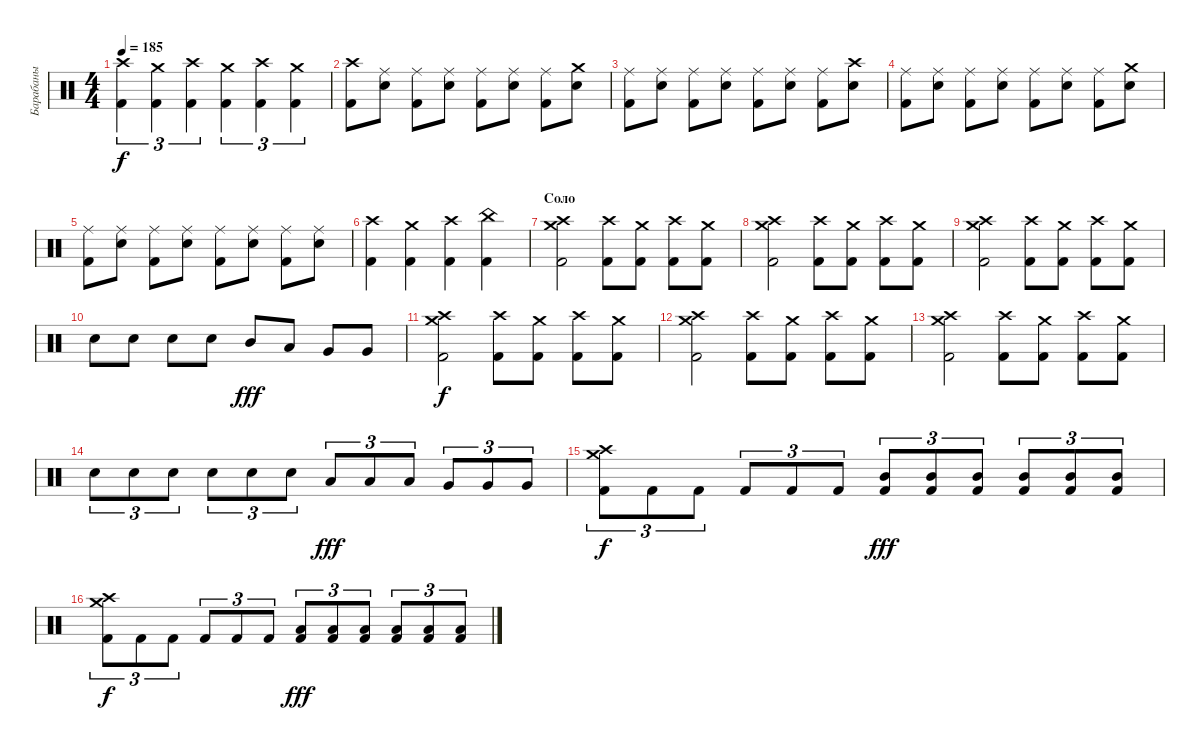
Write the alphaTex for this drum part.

\track ("Барабаны" "Барабаны") {instrument percussion}
\staff {score}
\articulation defaults
\ts (4 4)
\tempo 185
\clef neutral
\ks c
("Crash high (hit)" "Kick (hit) 2").4{tu (3 2) dy f} ("Crash medium (hit)" "Kick (hit) 2").4{tu (3 2)} ("Crash high (hit)" "Kick (hit) 2").4{tu (3 2)} ("Crash medium (hit)" "Kick (hit) 2").4{tu (3 2)} ("Crash high (hit)" "Kick (hit) 2").4{tu (3 2)} ("Crash medium (hit)" "Kick (hit) 2").4{tu (3 2)} |
("Crash high (hit)" "Kick (hit) 2").8 ("Ride (middle)" "Snare (hit) 2").8 ("Ride (middle)" "Kick (hit) 2").8 ("Ride (middle)" "Snare (hit) 2").8 ("Ride (middle)" "Kick (hit) 2").8 ("Ride (middle)" "Snare (hit) 2").8 ("Ride (middle)" "Kick (hit) 2").8 ("Crash medium (hit)" "Snare (hit) 2").8 |
("Ride (middle)" "Kick (hit) 2").8 ("Ride (middle)" "Snare (hit) 2").8 ("Ride (middle)" "Kick (hit) 2").8 ("Ride (middle)" "Snare (hit) 2").8 ("Ride (middle)" "Kick (hit) 2").8 ("Ride (middle)" "Snare (hit) 2").8 ("Ride (middle)" "Kick (hit) 2").8 ("Crash high (hit)" "Snare (hit) 2").8 |
("Ride (middle)" "Kick (hit) 2").8 ("Ride (middle)" "Snare (hit) 2").8 ("Ride (middle)" "Kick (hit) 2").8 ("Ride (middle)" "Snare (hit) 2").8 ("Ride (middle)" "Kick (hit) 2").8 ("Ride (middle)" "Snare (hit) 2").8 ("Ride (middle)" "Kick (hit) 2").8 ("Crash medium (hit)" "Snare (hit) 2").8 |
("Ride (middle)" "Kick (hit) 2").8 ("Ride (middle)" "Snare (hit) 2").8 ("Ride (middle)" "Kick (hit) 2").8 ("Ride (middle)" "Snare (hit) 2").8 ("Ride (middle)" "Kick (hit) 2").8 ("Ride (middle)" "Snare (hit) 2").8 ("Ride (middle)" "Kick (hit) 2").8 ("Ride (middle)" "Snare (hit) 2").8 |
("Crash high (hit)" "Kick (hit) 2").4 ("Crash medium (hit)" "Kick (hit) 2").4 ("Crash high (hit)" "Kick (hit) 2").4 ("China (hit)" "Kick (hit) 2").4 |
\section ("" "Соло")
("Crash high (hit)" "Crash medium (hit)" "Kick (hit) 2").2 ("Crash high (hit)" "Kick (hit) 2").8 ("Crash medium (hit)" "Kick (hit) 2").8 ("Crash high (hit)" "Kick (hit) 2").8 ("Crash medium (hit)" "Kick (hit) 2").8 |
("Crash high (hit)" "Crash medium (hit)" "Kick (hit) 2").2 ("Crash high (hit)" "Kick (hit) 2").8 ("Crash medium (hit)" "Kick (hit) 2").8 ("Crash high (hit)" "Kick (hit) 2").8 ("Crash medium (hit)" "Kick (hit) 2").8 |
("Crash high (hit)" "Crash medium (hit)" "Kick (hit) 2").2 ("Crash high (hit)" "Kick (hit) 2").8 ("Crash medium (hit)" "Kick (hit) 2").8 ("Crash high (hit)" "Kick (hit) 2").8 ("Crash medium (hit)" "Kick (hit) 2").8 |
"Snare (hit) 2".8 "Snare (hit) 2".8 "Snare (hit) 2".8 "Snare (hit) 2".8 "Mid Tom (hit)".8{dy fff} "Low Tom (hit)".8 "Very Low Tom (hit)".8 "Very Low Tom (hit)".8 |
("Crash high (hit)" "Crash medium (hit)" "Kick (hit) 2").2{dy f} ("Crash high (hit)" "Kick (hit) 2").8 ("Crash medium (hit)" "Kick (hit) 2").8 ("Crash high (hit)" "Kick (hit) 2").8 ("Crash medium (hit)" "Kick (hit) 2").8 |
("Crash high (hit)" "Crash medium (hit)" "Kick (hit) 2").2 ("Crash high (hit)" "Kick (hit) 2").8 ("Crash medium (hit)" "Kick (hit) 2").8 ("Crash high (hit)" "Kick (hit) 2").8 ("Crash medium (hit)" "Kick (hit) 2").8 |
("Crash high (hit)" "Crash medium (hit)" "Kick (hit) 2").2 ("Crash high (hit)" "Kick (hit) 2").8 ("Crash medium (hit)" "Kick (hit) 2").8 ("Crash high (hit)" "Kick (hit) 2").8 ("Crash medium (hit)" "Kick (hit) 2").8 |
"Snare (hit) 2".8{tu (3 2)} "Snare (hit) 2".8{tu (3 2)} "Snare (hit) 2".8{tu (3 2)} "Snare (hit) 2".8{tu (3 2)} "Snare (hit) 2".8{tu (3 2)} "Snare (hit) 2".8{tu (3 2)} "Low Tom (hit)".8{tu (3 2) dy fff} "Low Tom (hit)".8{tu (3 2)} "Low Tom (hit)".8{tu (3 2)} "Very Low Tom (hit)".8{tu (3 2)} "Very Low Tom (hit)".8{tu (3 2)} "Very Low Tom (hit)".8{tu (3 2)} |
("Crash high (hit)" "Crash medium (hit)" "Kick (hit) 2").8{tu (3 2) dy f} "Kick (hit) 2".8{tu (3 2)} "Kick (hit) 2".8{tu (3 2)} "Kick (hit) 2".8{tu (3 2)} "Kick (hit) 2".8{tu (3 2)} "Kick (hit) 2".8{tu (3 2)} ("Mid Tom (hit)" "Kick (hit) 2").8{tu (3 2) dy fff} ("Mid Tom (hit)" "Kick (hit) 2").8{tu (3 2)} ("Mid Tom (hit)" "Kick (hit) 2").8{tu (3 2)} ("Mid Tom (hit)" "Kick (hit) 2").8{tu (3 2)} ("Mid Tom (hit)" "Kick (hit) 2").8{tu (3 2)} ("Mid Tom (hit)" "Kick (hit) 2").8{tu (3 2)} |
("Crash high (hit)" "Crash medium (hit)" "Kick (hit) 2").8{tu (3 2) dy f} "Kick (hit) 2".8{tu (3 2)} "Kick (hit) 2".8{tu (3 2)} "Kick (hit) 2".8{tu (3 2)} "Kick (hit) 2".8{tu (3 2)} "Kick (hit) 2".8{tu (3 2)} ("Low Tom (hit)" "Kick (hit) 2").8{tu (3 2) dy fff} ("Low Tom (hit)" "Kick (hit) 2").8{tu (3 2)} ("Low Tom (hit)" "Kick (hit) 2").8{tu (3 2)} ("Low Tom (hit)" "Kick (hit) 2").8{tu (3 2)} ("Low Tom (hit)" "Kick (hit) 2").8{tu (3 2)} ("Low Tom (hit)" "Kick (hit) 2").8{tu (3 2)}
